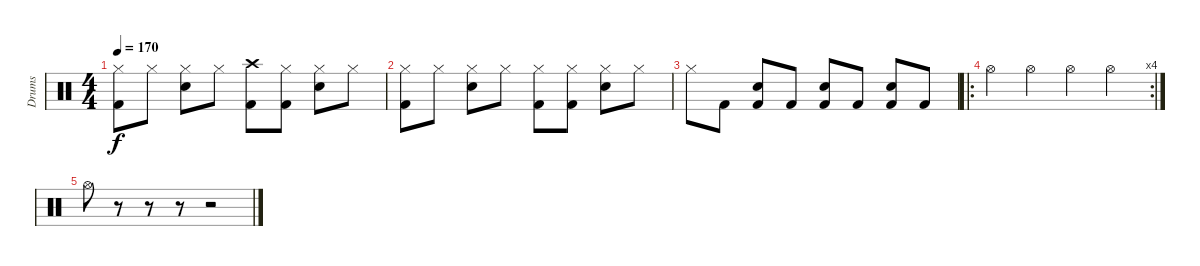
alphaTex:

\track ("Drums" "Drums") {instrument percussion}
\staff {score}
\articulation defaults
\ts (4 4)
\tempo 170
\clef neutral
\ks c
("Hi-Hat (closed)" "Kick (hit) 2").8{dy f} "Hi-Hat (closed)".8 ("Hi-Hat (closed)" "Snare (hit) 2").8 "Hi-Hat (closed)".8 ("Crash high (hit)" "Kick (hit) 2").8 ("Hi-Hat (closed)" "Kick (hit) 2").8 ("Hi-Hat (closed)" "Snare (hit) 2").8 "Hi-Hat (closed)".8 |
("Hi-Hat (closed)" "Kick (hit) 2").8 "Hi-Hat (closed)".8 ("Hi-Hat (closed)" "Snare (hit) 2").8 "Hi-Hat (closed)".8 ("Hi-Hat (closed)" "Kick (hit) 2").8 ("Hi-Hat (closed)" "Kick (hit) 2").8 ("Hi-Hat (closed)" "Snare (hit) 2").8 "Hi-Hat (closed)".8 |
"Hi-Hat (closed)".8 "Kick (hit) 2".8 ("Snare (hit) 2" "Kick (hit) 2").8 "Kick (hit) 2".8 ("Snare (hit) 2" "Kick (hit) 2").8 "Kick (hit) 2".8 ("Snare (hit) 2" "Kick (hit) 2").8 "Kick (hit) 2".8 |
\ro
\rc 4 "Hi-Hat (open)".4 "Hi-Hat (open)".4 "Hi-Hat (open)".4 "Hi-Hat (open)".4
|
"Hi-Hat (open)".8 r.8 r.8 r.8 r.2
